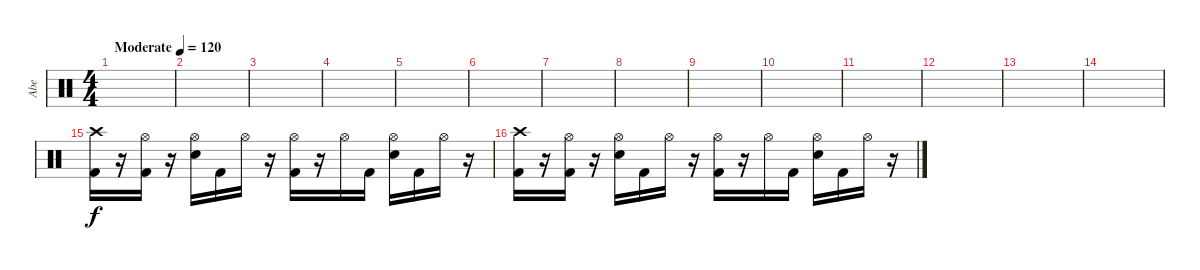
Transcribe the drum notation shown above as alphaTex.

\track ("Abe" "Abe") {instrument percussion}
\staff {score}
\articulation defaults
\ts (4 4)
\tempo (120 "Moderate")
\tempo 100
\tempo (120 "Moderate")
\clef neutral
\ks c
|
|
|
|
|
|
|
|
|
|
|
|
|
|
("Crash high (hit)" "Kick (hit) 2").16 r.16 ("Hi-Hat (open)" "Kick (hit) 2").16 r.16 ("Hi-Hat (open)" "Electric Snare (hit)").16 "Kick (hit) 2".16 "Hi-Hat (open)".16 r.16 ("Hi-Hat (open)" "Kick (hit) 2").16 r.16 "Hi-Hat (open)".16 "Kick (hit) 2".16 ("Hi-Hat (open)" "Electric Snare (hit)").16 "Kick (hit) 2".16 "Hi-Hat (open)".16 r.16 |
("Crash high (hit)" "Kick (hit) 2").16 r.16 ("Hi-Hat (open)" "Kick (hit) 2").16 r.16 ("Hi-Hat (open)" "Electric Snare (hit)").16 "Kick (hit) 2".16 "Hi-Hat (open)".16 r.16 ("Hi-Hat (open)" "Kick (hit) 2").16 r.16 "Hi-Hat (open)".16 "Kick (hit) 2".16 ("Hi-Hat (open)" "Electric Snare (hit)").16 "Kick (hit) 2".16 "Hi-Hat (open)".16 r.16
